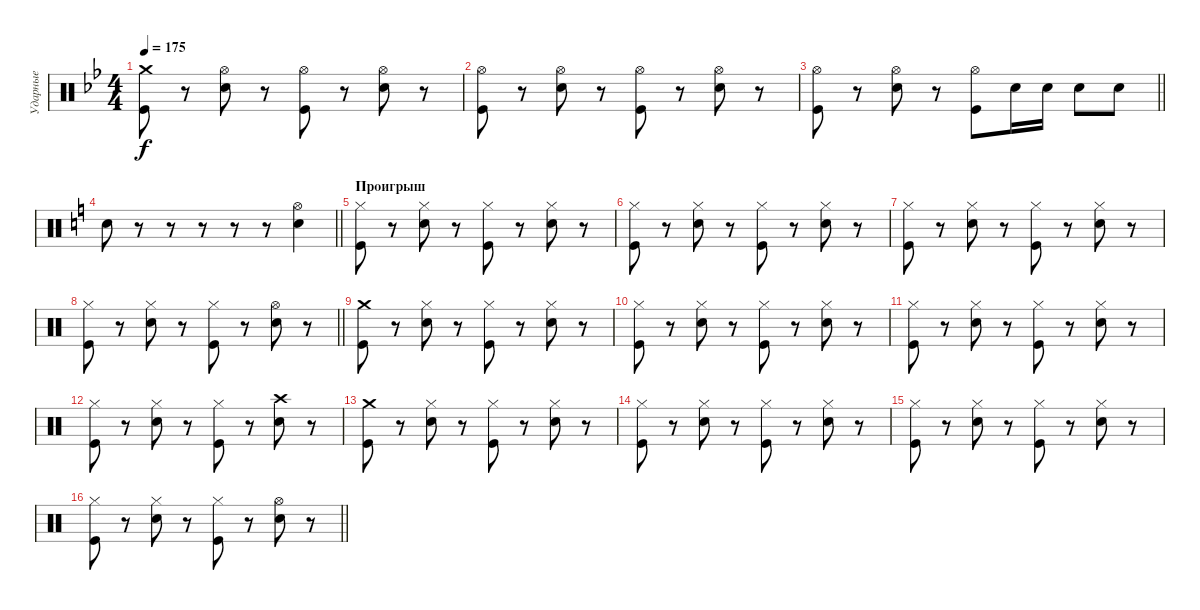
\track ("Ударные" "Ударные") {instrument percussion}
\staff {score}
\articulation defaults
\ts (4 4)
\tempo 175
\clef neutral
\ks bb
("Crash medium (hit)" "Kick (hit)").8{dy f} r.8 ("Hi-Hat (open)" "Electric Snare (hit)").8 r.8 ("Hi-Hat (open)" "Kick (hit)").8 r.8 ("Hi-Hat (open)" "Electric Snare (hit)").8 r.8 |
("Hi-Hat (open)" "Kick (hit)").8 r.8 ("Hi-Hat (open)" "Electric Snare (hit)").8 r.8 ("Hi-Hat (open)" "Kick (hit)").8 r.8 ("Hi-Hat (open)" "Electric Snare (hit)").8 r.8 |
\barLineRight lightlight
("Hi-Hat (open)" "Kick (hit)").8 r.8 ("Hi-Hat (open)" "Electric Snare (hit)").8 r.8 ("Hi-Hat (open)" "Kick (hit)").8 "Electric Snare (hit)".16 "Electric Snare (hit)".16 "Electric Snare (hit)".8 "Electric Snare (hit)".8 |
\barLineRight lightlight
\ks c "Electric Snare (hit)".8
r.8 r.8 r.8 r.8 r.8 ("Hi-Hat (open)" "Electric Snare (hit)").4 |
\section ("" "Проигрыш")
("Hi-Hat (closed)" "Kick (hit)").8 r.8 ("Hi-Hat (closed)" "Electric Snare (hit)").8 r.8 ("Hi-Hat (closed)" "Kick (hit)").8 r.8 ("Hi-Hat (closed)" "Electric Snare (hit)").8 r.8 |
("Hi-Hat (closed)" "Kick (hit)").8 r.8 ("Hi-Hat (closed)" "Electric Snare (hit)").8 r.8 ("Hi-Hat (closed)" "Kick (hit)").8 r.8 ("Hi-Hat (closed)" "Electric Snare (hit)").8 r.8 |
("Hi-Hat (closed)" "Kick (hit)").8 r.8 ("Hi-Hat (closed)" "Electric Snare (hit)").8 r.8 ("Hi-Hat (closed)" "Kick (hit)").8 r.8 ("Hi-Hat (closed)" "Electric Snare (hit)").8 r.8 |
\barLineRight lightlight
("Hi-Hat (closed)" "Kick (hit)").8 r.8 ("Hi-Hat (closed)" "Electric Snare (hit)").8 r.8 ("Hi-Hat (closed)" "Kick (hit)").8 r.8 ("Hi-Hat (open)" "Electric Snare (hit)").8 r.8 |
\section ("" " ")
("Crash medium (hit)" "Kick (hit)").8 r.8 ("Hi-Hat (closed)" "Electric Snare (hit)").8 r.8 ("Hi-Hat (closed)" "Kick (hit)").8 r.8 ("Hi-Hat (closed)" "Electric Snare (hit)").8 r.8 |
("Hi-Hat (closed)" "Kick (hit)").8 r.8 ("Hi-Hat (closed)" "Electric Snare (hit)").8 r.8 ("Hi-Hat (closed)" "Kick (hit)").8 r.8 ("Hi-Hat (closed)" "Electric Snare (hit)").8 r.8 |
("Hi-Hat (closed)" "Kick (hit)").8 r.8 ("Hi-Hat (closed)" "Electric Snare (hit)").8 r.8 ("Hi-Hat (closed)" "Kick (hit)").8 r.8 ("Hi-Hat (closed)" "Electric Snare (hit)").8 r.8 |
("Hi-Hat (closed)" "Kick (hit)").8 r.8 ("Hi-Hat (closed)" "Electric Snare (hit)").8 r.8 ("Hi-Hat (closed)" "Kick (hit)").8 r.8 ("Crash high (hit)" "Electric Snare (hit)").8 r.8 |
("Crash medium (hit)" "Kick (hit)").8 r.8 ("Hi-Hat (closed)" "Electric Snare (hit)").8 r.8 ("Hi-Hat (closed)" "Kick (hit)").8 r.8 ("Hi-Hat (closed)" "Electric Snare (hit)").8 r.8 |
("Hi-Hat (closed)" "Kick (hit)").8 r.8 ("Hi-Hat (closed)" "Electric Snare (hit)").8 r.8 ("Hi-Hat (closed)" "Kick (hit)").8 r.8 ("Hi-Hat (closed)" "Electric Snare (hit)").8 r.8 |
("Hi-Hat (closed)" "Kick (hit)").8 r.8 ("Hi-Hat (closed)" "Electric Snare (hit)").8 r.8 ("Hi-Hat (closed)" "Kick (hit)").8 r.8 ("Hi-Hat (closed)" "Electric Snare (hit)").8 r.8 |
\barLineRight lightlight
("Hi-Hat (closed)" "Kick (hit)").8 r.8 ("Hi-Hat (closed)" "Electric Snare (hit)").8 r.8 ("Hi-Hat (closed)" "Kick (hit)").8 r.8 ("Hi-Hat (open)" "Electric Snare (hit)").8 r.8
